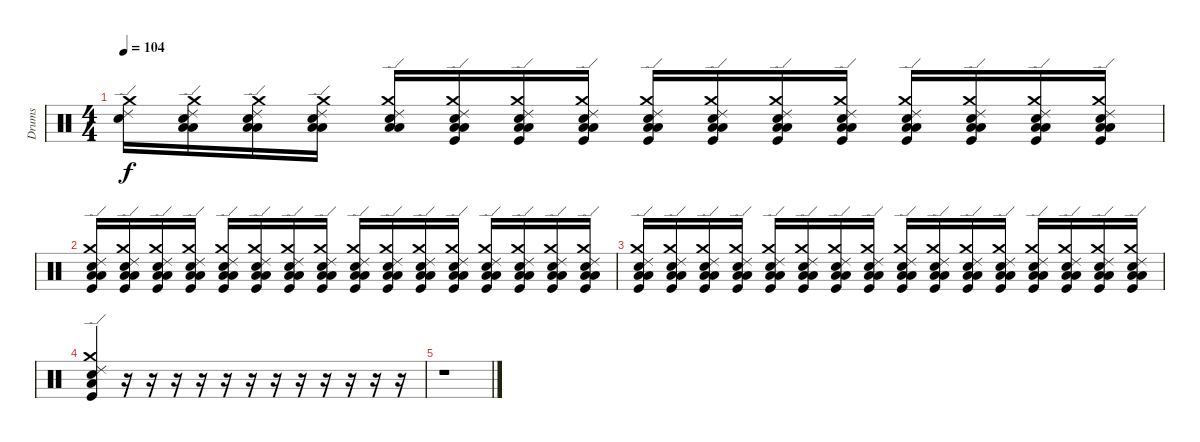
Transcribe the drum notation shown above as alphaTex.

\track ("Drums" "Drums") {instrument percussion}
\staff {score}
\articulation defaults
\ts (4 4)
\tempo 104
\clef neutral
\ks c
("Ride (edge) 2" "Crash medium (hit)" "Electric Snare (hit)").16{dy f} ("Low Floor Tom (hit)" "Ride (edge) 2" "Crash medium (hit)" "Low Tom (hit)" "Electric Snare (hit)").16 ("Low Floor Tom (hit)" "Ride (edge) 2" "Crash medium (hit)" "Low Tom (hit)" "Electric Snare (hit)").16 ("Low Floor Tom (hit)" "Ride (edge) 2" "Crash medium (hit)" "Low Tom (hit)" "Electric Snare (hit)").16 ("Low Floor Tom (hit)" "Ride (edge) 2" "Crash medium (hit)" "Low Tom (hit)" "Electric Snare (hit)").16 ("Low Floor Tom (hit)" "Ride (edge) 2" "Crash medium (hit)" "Low Tom (hit)" "Electric Snare (hit)" "Kick (hit)").16 ("Low Floor Tom (hit)" "Ride (edge) 2" "Crash medium (hit)" "Low Tom (hit)" "Electric Snare (hit)" "Kick (hit)").16 ("Low Floor Tom (hit)" "Ride (edge) 2" "Crash medium (hit)" "Low Tom (hit)" "Electric Snare (hit)" "Kick (hit)").16 ("Low Floor Tom (hit)" "Ride (edge) 2" "Crash medium (hit)" "Low Tom (hit)" "Electric Snare (hit)" "Kick (hit)").16 ("Low Floor Tom (hit)" "Ride (edge) 2" "Crash medium (hit)" "Low Tom (hit)" "Electric Snare (hit)" "Kick (hit)").16 ("Low Floor Tom (hit)" "Ride (edge) 2" "Crash medium (hit)" "Low Tom (hit)" "Electric Snare (hit)" "Kick (hit)").16 ("Low Floor Tom (hit)" "Ride (edge) 2" "Crash medium (hit)" "Low Tom (hit)" "Electric Snare (hit)" "Kick (hit)").16 ("Low Floor Tom (hit)" "Ride (edge) 2" "Crash medium (hit)" "Low Tom (hit)" "Electric Snare (hit)" "Kick (hit)").16 ("Low Floor Tom (hit)" "Ride (edge) 2" "Crash medium (hit)" "Low Tom (hit)" "Electric Snare (hit)" "Kick (hit)").16 ("Low Floor Tom (hit)" "Ride (edge) 2" "Crash medium (hit)" "Low Tom (hit)" "Electric Snare (hit)" "Kick (hit)").16 ("Low Floor Tom (hit)" "Ride (edge) 2" "Crash medium (hit)" "Low Tom (hit)" "Electric Snare (hit)" "Kick (hit)").16 |
("Low Floor Tom (hit)" "Ride (edge) 2" "Crash medium (hit)" "Low Tom (hit)" "Electric Snare (hit)" "Kick (hit)").16 ("Low Floor Tom (hit)" "Ride (edge) 2" "Crash medium (hit)" "Low Tom (hit)" "Electric Snare (hit)" "Kick (hit)").16 ("Low Floor Tom (hit)" "Ride (edge) 2" "Crash medium (hit)" "Low Tom (hit)" "Electric Snare (hit)" "Kick (hit)").16 ("Low Floor Tom (hit)" "Ride (edge) 2" "Crash medium (hit)" "Low Tom (hit)" "Electric Snare (hit)" "Kick (hit)").16 ("Low Floor Tom (hit)" "Ride (edge) 2" "Crash medium (hit)" "Low Tom (hit)" "Electric Snare (hit)" "Kick (hit)").16 ("Low Floor Tom (hit)" "Ride (edge) 2" "Crash medium (hit)" "Low Tom (hit)" "Electric Snare (hit)" "Kick (hit)").16 ("Low Floor Tom (hit)" "Ride (edge) 2" "Crash medium (hit)" "Low Tom (hit)" "Electric Snare (hit)" "Kick (hit)").16 ("Low Floor Tom (hit)" "Ride (edge) 2" "Crash medium (hit)" "Low Tom (hit)" "Electric Snare (hit)" "Kick (hit)").16 ("Low Floor Tom (hit)" "Ride (edge) 2" "Crash medium (hit)" "Low Tom (hit)" "Electric Snare (hit)" "Kick (hit)").16 ("Low Floor Tom (hit)" "Ride (edge) 2" "Crash medium (hit)" "Low Tom (hit)" "Electric Snare (hit)" "Kick (hit)").16 ("Low Floor Tom (hit)" "Ride (edge) 2" "Crash medium (hit)" "Low Tom (hit)" "Electric Snare (hit)" "Kick (hit)").16 ("Low Floor Tom (hit)" "Ride (edge) 2" "Crash medium (hit)" "Low Tom (hit)" "Electric Snare (hit)" "Kick (hit)").16 ("Low Floor Tom (hit)" "Ride (edge) 2" "Crash medium (hit)" "Low Tom (hit)" "Electric Snare (hit)" "Kick (hit)").16 ("Low Floor Tom (hit)" "Ride (edge) 2" "Crash medium (hit)" "Low Tom (hit)" "Electric Snare (hit)" "Kick (hit)").16 ("Low Floor Tom (hit)" "Ride (edge) 2" "Crash medium (hit)" "Low Tom (hit)" "Electric Snare (hit)" "Kick (hit)").16 ("Low Floor Tom (hit)" "Ride (edge) 2" "Crash medium (hit)" "Low Tom (hit)" "Electric Snare (hit)" "Kick (hit)").16 |
("Low Floor Tom (hit)" "Ride (edge) 2" "Crash medium (hit)" "Low Tom (hit)" "Electric Snare (hit)" "Kick (hit)").16 ("Low Floor Tom (hit)" "Ride (edge) 2" "Crash medium (hit)" "Low Tom (hit)" "Electric Snare (hit)" "Kick (hit)").16 ("Low Floor Tom (hit)" "Ride (edge) 2" "Crash medium (hit)" "Low Tom (hit)" "Electric Snare (hit)" "Kick (hit)").16 ("Low Floor Tom (hit)" "Ride (edge) 2" "Crash medium (hit)" "Low Tom (hit)" "Electric Snare (hit)" "Kick (hit)").16 ("Low Floor Tom (hit)" "Ride (edge) 2" "Crash medium (hit)" "Low Tom (hit)" "Electric Snare (hit)" "Kick (hit)").16 ("Low Floor Tom (hit)" "Ride (edge) 2" "Crash medium (hit)" "Low Tom (hit)" "Electric Snare (hit)" "Kick (hit)").16 ("Low Floor Tom (hit)" "Ride (edge) 2" "Crash medium (hit)" "Low Tom (hit)" "Electric Snare (hit)" "Kick (hit)").16 ("Low Floor Tom (hit)" "Ride (edge) 2" "Crash medium (hit)" "Low Tom (hit)" "Electric Snare (hit)" "Kick (hit)").16 ("Low Floor Tom (hit)" "Ride (edge) 2" "Crash medium (hit)" "Low Tom (hit)" "Electric Snare (hit)" "Kick (hit)").16 ("Low Floor Tom (hit)" "Ride (edge) 2" "Crash medium (hit)" "Low Tom (hit)" "Electric Snare (hit)" "Kick (hit)").16 ("Low Floor Tom (hit)" "Ride (edge) 2" "Crash medium (hit)" "Low Tom (hit)" "Electric Snare (hit)" "Kick (hit)").16 ("Low Floor Tom (hit)" "Ride (edge) 2" "Crash medium (hit)" "Low Tom (hit)" "Electric Snare (hit)" "Kick (hit)").16 ("Low Floor Tom (hit)" "Ride (edge) 2" "Crash medium (hit)" "Low Tom (hit)" "Electric Snare (hit)" "Kick (hit)").16 ("Low Floor Tom (hit)" "Ride (edge) 2" "Crash medium (hit)" "Low Tom (hit)" "Electric Snare (hit)" "Kick (hit)").16 ("Low Floor Tom (hit)" "Ride (edge) 2" "Crash medium (hit)" "Low Tom (hit)" "Electric Snare (hit)" "Kick (hit)").16 ("Low Floor Tom (hit)" "Ride (edge) 2" "Crash medium (hit)" "Low Tom (hit)" "Electric Snare (hit)" "Kick (hit)").16 |
("Low Floor Tom (hit)" "Ride (edge) 2" "Crash medium (hit)" "Electric Snare (hit)" "Kick (hit)").4 r.16 r.16 r.16 r.16 r.16 r.16 r.16 r.16 r.16 r.16 r.16 r.16 |
r.1
